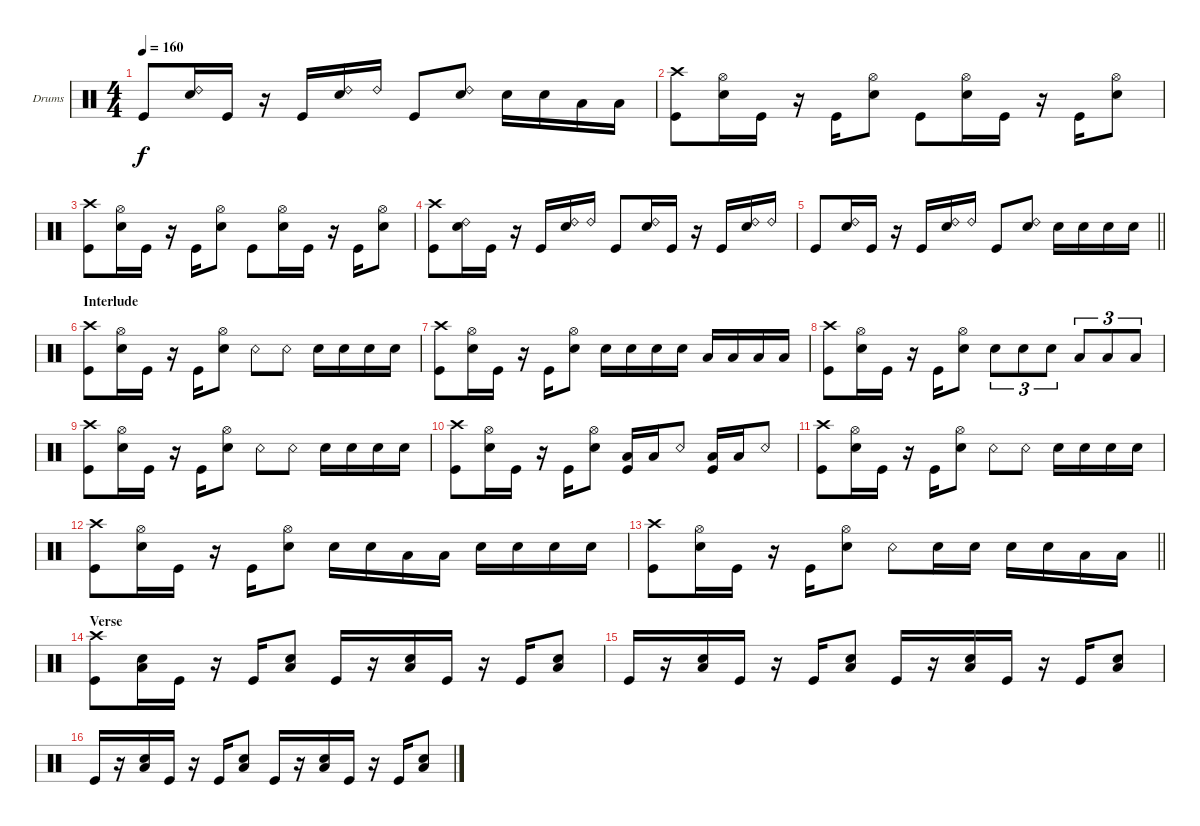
\defaultSystemsLayout 4
\bracketExtendMode groupsimilarinstruments
\firstSystemTrackNameOrientation horizontal
\otherSystemsTrackNameOrientation horizontal
\track ("Drums" "Drums") {instrument percussion}
\staff {score}
\articulation defaults
\ts (4 4)
\tempo 160
\clef neutral
\ks c "Kick (hit)".8{dy f}
("Ride (bell) 2" "Snare (hit) 2").16 "Kick (hit)".16 r.16 "Kick (hit)".16 ("Ride (bell) 2" "Snare (hit) 2").16 "Ride (bell) 2".16 "Kick (hit)".8 ("Ride (bell) 2" "Snare (hit) 2").8 "Snare (hit) 2".16 "Snare (hit) 2".16 "Low Tom (hit)".16 "Low Tom (hit)".16 |
("Kick (hit)" "Crash high (hit)").8 ("Snare (hit) 2" "Hi-Hat (open)").16 "Kick (hit)".16 r.16 "Kick (hit)".16 ("Snare (hit) 2" "Hi-Hat (open)").8 "Kick (hit)".8 ("Snare (hit) 2" "Hi-Hat (open)").16 "Kick (hit)".16 r.16 "Kick (hit)".16 ("Snare (hit) 2" "Hi-Hat (open)").8 |
("Kick (hit)" "Crash high (hit)").8 ("Snare (hit) 2" "Hi-Hat (open)").16 "Kick (hit)".16 r.16 "Kick (hit)".16 ("Snare (hit) 2" "Hi-Hat (open)").8 "Kick (hit)".8 ("Snare (hit) 2" "Hi-Hat (open)").16 "Kick (hit)".16 r.16 "Kick (hit)".16 ("Snare (hit) 2" "Hi-Hat (open)").8 |
("Kick (hit)" "Crash high (hit)").8 ("Ride (bell) 2" "Snare (hit) 2").16 "Kick (hit)".16 r.16 "Kick (hit)".16 ("Ride (bell) 2" "Snare (hit) 2").16 "Ride (bell) 2".16 "Kick (hit)".8 ("Ride (bell) 2" "Snare (hit) 2").16 "Kick (hit)".16 r.16 "Kick (hit)".16 ("Ride (bell) 2" "Snare (hit) 2").16 "Ride (bell) 2".16 |
\barLineRight lightlight "Kick (hit)".8
("Ride (bell) 2" "Snare (hit) 2").16 "Kick (hit)".16 r.16 "Kick (hit)".16 ("Ride (bell) 2" "Snare (hit) 2").16 "Ride (bell) 2".16 "Kick (hit)".8 ("Ride (bell) 2" "Snare (hit) 2").8 "Snare (hit) 2".16 "Snare (hit) 2".16 "Snare (hit) 2".16 "Snare (hit) 2".16 |
\section ("" "Interlude")
("Kick (hit)" "Crash high (hit)").8 ("Snare (hit) 2" "Hi-Hat (open)").16 "Kick (hit)".16 r.16 "Kick (hit)".16 ("Snare (hit) 2" "Hi-Hat (open)").8 "Snare (rim shot)".8 "Snare (rim shot)".8 "Snare (hit) 2".16 "Snare (hit) 2".16 "Snare (hit) 2".16 "Snare (hit) 2".16 |
("Kick (hit)" "Crash high (hit)").8 ("Snare (hit) 2" "Hi-Hat (open)").16 "Kick (hit)".16 r.16 "Kick (hit)".16 ("Snare (hit) 2" "Hi-Hat (open)").8 "Snare (hit) 2".16 "Snare (hit) 2".16 "Snare (hit) 2".16 "Snare (hit) 2".16 "Low Tom (hit)".16 "Low Tom (hit)".16 "Low Tom (hit)".16 "Low Tom (hit)".16 |
("Kick (hit)" "Crash high (hit)").8 ("Snare (hit) 2" "Hi-Hat (open)").16 "Kick (hit)".16 r.16 "Kick (hit)".16 ("Snare (hit) 2" "Hi-Hat (open)").8 "Snare (hit) 2".8{tu (3 2)} "Snare (hit) 2".8{tu (3 2)} "Snare (hit) 2".8{tu (3 2)} "Low Tom (hit)".8{tu (3 2)} "Low Tom (hit)".8{tu (3 2)} "Low Tom (hit)".8{tu (3 2)} |
("Kick (hit)" "Crash high (hit)").8 ("Snare (hit) 2" "Hi-Hat (open)").16 "Kick (hit)".16 r.16 "Kick (hit)".16 ("Snare (hit) 2" "Hi-Hat (open)").8 "Snare (rim shot)".8 "Snare (rim shot)".8 "Snare (hit) 2".16 "Snare (hit) 2".16 "Snare (hit) 2".16 "Snare (hit) 2".16 |
("Kick (hit)" "Crash high (hit)").8 ("Snare (hit) 2" "Hi-Hat (open)").16 "Kick (hit)".16 r.16 "Kick (hit)".16 ("Snare (hit) 2" "Hi-Hat (open)").8 ("Low Tom (hit)" "Kick (hit)").16 "Low Tom (hit)".16 "Snare (rim shot)".8 ("Low Tom (hit)" "Kick (hit)").16 "Low Tom (hit)".16 "Snare (rim shot)".8 |
("Kick (hit)" "Crash high (hit)").8 ("Snare (hit) 2" "Hi-Hat (open)").16 "Kick (hit)".16 r.16 "Kick (hit)".16 ("Snare (hit) 2" "Hi-Hat (open)").8 "Snare (rim shot)".8 "Snare (rim shot)".8 "Snare (hit) 2".16 "Snare (hit) 2".16 "Snare (hit) 2".16 "Snare (hit) 2".16 |
("Kick (hit)" "Crash high (hit)").8 ("Snare (hit) 2" "Hi-Hat (open)").16 "Kick (hit)".16 r.16 "Kick (hit)".16 ("Snare (hit) 2" "Hi-Hat (open)").8 "Snare (hit) 2".16 "Snare (hit) 2".16 "Low Tom (hit)".16 "Low Tom (hit)".16 "Snare (hit) 2".16 "Snare (hit) 2".16 "Snare (hit) 2".16 "Snare (hit) 2".16 |
\barLineRight lightlight
("Kick (hit)" "Crash high (hit)").8 ("Snare (hit) 2" "Hi-Hat (open)").16 "Kick (hit)".16 r.16 "Kick (hit)".16 ("Snare (hit) 2" "Hi-Hat (open)").8 "Snare (rim shot)".8 "Snare (hit) 2".16 "Snare (hit) 2".16 "Snare (hit) 2".16 "Snare (hit) 2".16 "Low Tom (hit)".16 "Low Tom (hit)".16 |
\section ("" "Verse")
("Kick (hit)" "Crash high (hit)").8 ("Snare (hit) 2" "Low Tom (hit)").16 "Kick (hit)".16 r.16 "Kick (hit)".16 ("Snare (hit) 2" "Low Tom (hit)").8 "Kick (hit)".16 r.16 ("Snare (hit) 2" "Low Tom (hit)").16 "Kick (hit)".16 r.16 "Kick (hit)".16 ("Snare (hit) 2" "Low Tom (hit)").8 |
"Kick (hit)".16 r.16 ("Snare (hit) 2" "Low Tom (hit)").16 "Kick (hit)".16 r.16 "Kick (hit)".16 ("Snare (hit) 2" "Low Tom (hit)").8 "Kick (hit)".16 r.16 ("Snare (hit) 2" "Low Tom (hit)").16 "Kick (hit)".16 r.16 "Kick (hit)".16 ("Snare (hit) 2" "Low Tom (hit)").8 |
"Kick (hit)".16 r.16 ("Snare (hit) 2" "Low Tom (hit)").16 "Kick (hit)".16 r.16 "Kick (hit)".16 ("Snare (hit) 2" "Low Tom (hit)").8 "Kick (hit)".16 r.16 ("Snare (hit) 2" "Low Tom (hit)").16 "Kick (hit)".16 r.16 "Kick (hit)".16 ("Snare (hit) 2" "Low Tom (hit)").8
